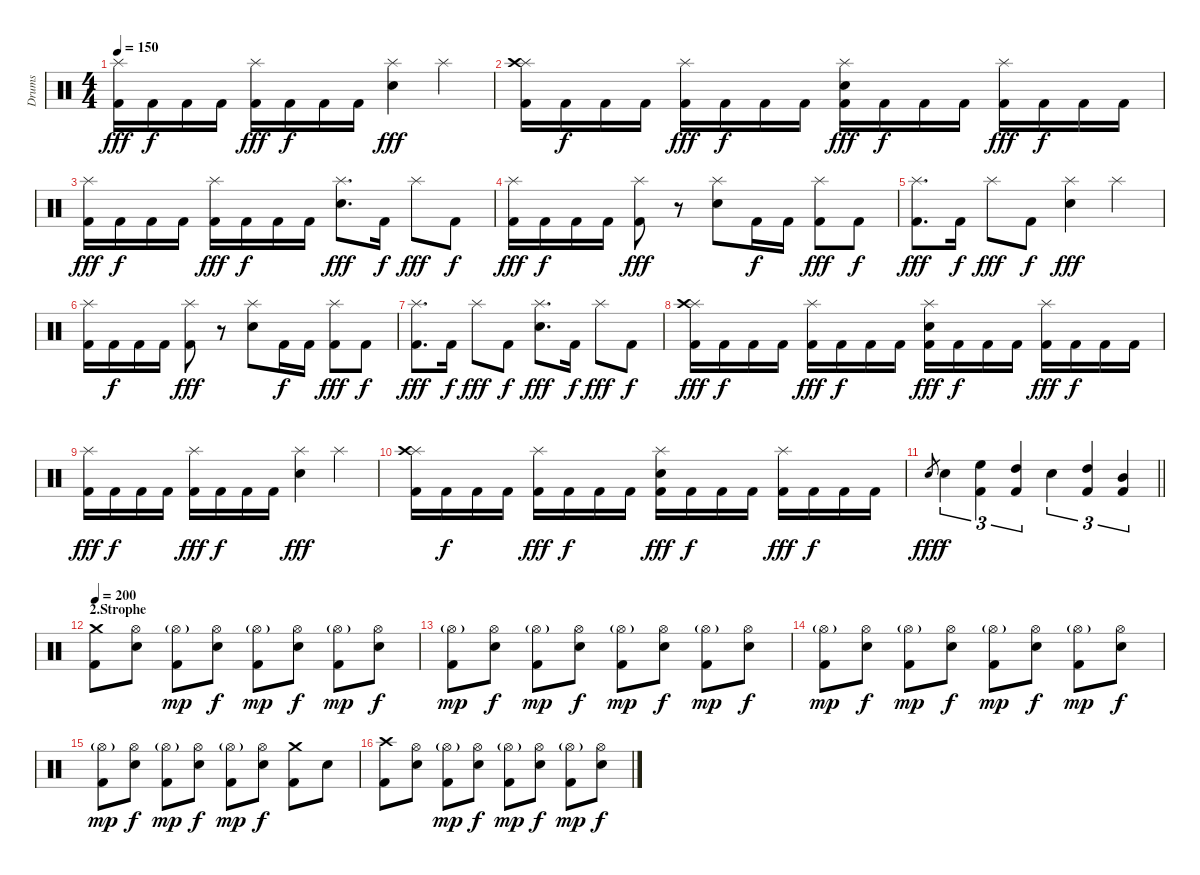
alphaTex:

\track ("Drums" "Drums") {instrument percussion}
\staff {score}
\articulation defaults
\ts (4 4)
\tempo 150
\clef neutral
\ks c
("Splash (hit)" "Kick (hit) 2").16{dy fff} "Kick (hit) 2".16{dy f} "Kick (hit) 2".16 "Kick (hit) 2".16 ("Splash (hit)" "Kick (hit) 2").16{dy fff} "Kick (hit) 2".16{dy f} "Kick (hit) 2".16 "Kick (hit) 2".16 ("Splash (hit)" "Electric Snare (hit)").4{dy fff} "Splash (hit)".4 |
("Splash (hit)" "Crash high (hit)" "Kick (hit) 2").16 "Kick (hit) 2".16{dy f} "Kick (hit) 2".16 "Kick (hit) 2".16 ("Splash (hit)" "Kick (hit) 2").16{dy fff} "Kick (hit) 2".16{dy f} "Kick (hit) 2".16 "Kick (hit) 2".16 ("Splash (hit)" "Electric Snare (hit)" "Kick (hit) 2").16{dy fff} "Kick (hit) 2".16{dy f} "Kick (hit) 2".16 "Kick (hit) 2".16 ("Splash (hit)" "Kick (hit) 2").16{dy fff} "Kick (hit) 2".16{dy f} "Kick (hit) 2".16 "Kick (hit) 2".16 |
("Splash (hit)" "Kick (hit) 2").16{dy fff} "Kick (hit) 2".16{dy f} "Kick (hit) 2".16 "Kick (hit) 2".16 ("Splash (hit)" "Kick (hit) 2").16{dy fff} "Kick (hit) 2".16{dy f} "Kick (hit) 2".16 "Kick (hit) 2".16 ("Splash (hit)" "Electric Snare (hit)").8{d dy fff} "Kick (hit) 2".16{dy f} "Splash (hit)".8{dy fff} "Kick (hit) 2".8{dy f} |
("Splash (hit)" "Kick (hit) 2").16{dy fff} "Kick (hit) 2".16{dy f} "Kick (hit) 2".16 "Kick (hit) 2".16 ("Splash (hit)" "Kick (hit) 2").8{dy fff} r.8 ("Splash (hit)" "Electric Snare (hit)").8 "Kick (hit) 2".16{dy f} "Kick (hit) 2".16 ("Splash (hit)" "Kick (hit) 2").8{dy fff} "Kick (hit) 2".8{dy f} |
("Splash (hit)" "Kick (hit) 2").8{d dy fff} "Kick (hit) 2".16{dy f} "Splash (hit)".8{dy fff} "Kick (hit) 2".8{dy f} ("Splash (hit)" "Electric Snare (hit)").4{dy fff} "Splash (hit)".4 |
("Splash (hit)" "Kick (hit) 2").16 "Kick (hit) 2".16{dy f} "Kick (hit) 2".16 "Kick (hit) 2".16 ("Splash (hit)" "Kick (hit) 2").8{dy fff} r.8 ("Splash (hit)" "Electric Snare (hit)").8 "Kick (hit) 2".16{dy f} "Kick (hit) 2".16 ("Splash (hit)" "Kick (hit) 2").8{dy fff} "Kick (hit) 2".8{dy f} |
("Splash (hit)" "Kick (hit) 2").8{d dy fff} "Kick (hit) 2".16{dy f} "Splash (hit)".8{dy fff} "Kick (hit) 2".8{dy f} ("Splash (hit)" "Electric Snare (hit)").8{d dy fff} "Kick (hit) 2".16{dy f} "Splash (hit)".8{dy fff} "Kick (hit) 2".8{dy f} |
("Splash (hit)" "Crash high (hit)" "Kick (hit) 2").16{dy fff} "Kick (hit) 2".16{dy f} "Kick (hit) 2".16 "Kick (hit) 2".16 ("Splash (hit)" "Kick (hit) 2").16{dy fff} "Kick (hit) 2".16{dy f} "Kick (hit) 2".16 "Kick (hit) 2".16 ("Splash (hit)" "Electric Snare (hit)" "Kick (hit) 2").16{dy fff} "Kick (hit) 2".16{dy f} "Kick (hit) 2".16 "Kick (hit) 2".16 ("Splash (hit)" "Kick (hit) 2").16{dy fff} "Kick (hit) 2".16{dy f} "Kick (hit) 2".16 "Kick (hit) 2".16 |
("Splash (hit)" "Kick (hit) 2").16{dy fff} "Kick (hit) 2".16{dy f} "Kick (hit) 2".16 "Kick (hit) 2".16 ("Splash (hit)" "Kick (hit) 2").16{dy fff} "Kick (hit) 2".16{dy f} "Kick (hit) 2".16 "Kick (hit) 2".16 ("Splash (hit)" "Electric Snare (hit)").4{dy fff} "Splash (hit)".4 |
("Splash (hit)" "Crash high (hit)" "Kick (hit) 2").16 "Kick (hit) 2".16{dy f} "Kick (hit) 2".16 "Kick (hit) 2".16 ("Splash (hit)" "Kick (hit) 2").16{dy fff} "Kick (hit) 2".16{dy f} "Kick (hit) 2".16 "Kick (hit) 2".16 ("Splash (hit)" "Electric Snare (hit)" "Kick (hit) 2").16{dy fff} "Kick (hit) 2".16{dy f} "Kick (hit) 2".16 "Kick (hit) 2".16 ("Splash (hit)" "Kick (hit) 2").16{dy fff} "Kick (hit) 2".16{dy f} "Kick (hit) 2".16 "Kick (hit) 2".16 |
\barLineRight lightlight "Electric Snare (hit)".8{gr dy fff} "Electric Snare (hit)".4{tu (3 2) dy f}
("High Floor Tom (hit)" "Kick (hit) 2").4{tu (3 2)} ("High Tom (hit)" "Kick (hit) 2").4{tu (3 2)} "Electric Snare (hit)".4{tu (3 2)} ("High Tom (hit)" "Kick (hit) 2").4{tu (3 2)} ("Mid Tom (hit)" "Kick (hit) 2").4{tu (3 2)} |
\section ("" "2.Strophe")
\tempo 200
("Crash medium (hit)" "Kick (hit) 2").8 ("Hi-Hat (open)" "Electric Snare (hit)").8 ("Hi-Hat (open)"{g} "Kick (hit) 2").8{dy mp} ("Hi-Hat (open)" "Electric Snare (hit)").8{dy f} ("Hi-Hat (open)"{g} "Kick (hit) 2").8{dy mp} ("Hi-Hat (open)" "Electric Snare (hit)").8{dy f} ("Hi-Hat (open)"{g} "Kick (hit) 2").8{dy mp} ("Hi-Hat (open)" "Electric Snare (hit)").8{dy f} |
("Hi-Hat (open)"{g} "Kick (hit) 2").8{dy mp} ("Hi-Hat (open)" "Electric Snare (hit)").8{dy f} ("Hi-Hat (open)"{g} "Kick (hit) 2").8{dy mp} ("Hi-Hat (open)" "Electric Snare (hit)").8{dy f} ("Hi-Hat (open)"{g} "Kick (hit) 2").8{dy mp} ("Hi-Hat (open)" "Electric Snare (hit)").8{dy f} ("Hi-Hat (open)"{g} "Kick (hit) 2").8{dy mp} ("Hi-Hat (open)" "Electric Snare (hit)").8{dy f} |
("Hi-Hat (open)"{g} "Kick (hit) 2").8{dy mp} ("Hi-Hat (open)" "Electric Snare (hit)").8{dy f} ("Hi-Hat (open)"{g} "Kick (hit) 2").8{dy mp} ("Hi-Hat (open)" "Electric Snare (hit)").8{dy f} ("Hi-Hat (open)"{g} "Kick (hit) 2").8{dy mp} ("Hi-Hat (open)" "Electric Snare (hit)").8{dy f} ("Hi-Hat (open)"{g} "Kick (hit) 2").8{dy mp} ("Hi-Hat (open)" "Electric Snare (hit)").8{dy f} |
("Hi-Hat (open)"{g} "Kick (hit) 2").8{dy mp} ("Hi-Hat (open)" "Electric Snare (hit)").8{dy f} ("Hi-Hat (open)"{g} "Kick (hit) 2").8{dy mp} ("Hi-Hat (open)" "Electric Snare (hit)").8{dy f} ("Hi-Hat (open)"{g} "Kick (hit) 2").8{dy mp} ("Hi-Hat (open)" "Electric Snare (hit)").8{dy f} ("Crash medium (hit)" "Kick (hit) 2").8 "Electric Snare (hit)".8 |
("Crash high (hit)" "Kick (hit) 2").8 ("Hi-Hat (open)" "Electric Snare (hit)").8 ("Hi-Hat (open)"{g} "Kick (hit) 2").8{dy mp} ("Hi-Hat (open)" "Electric Snare (hit)").8{dy f} ("Hi-Hat (open)"{g} "Kick (hit) 2").8{dy mp} ("Hi-Hat (open)" "Electric Snare (hit)").8{dy f} ("Hi-Hat (open)"{g} "Kick (hit) 2").8{dy mp} ("Hi-Hat (open)" "Electric Snare (hit)").8{dy f}
